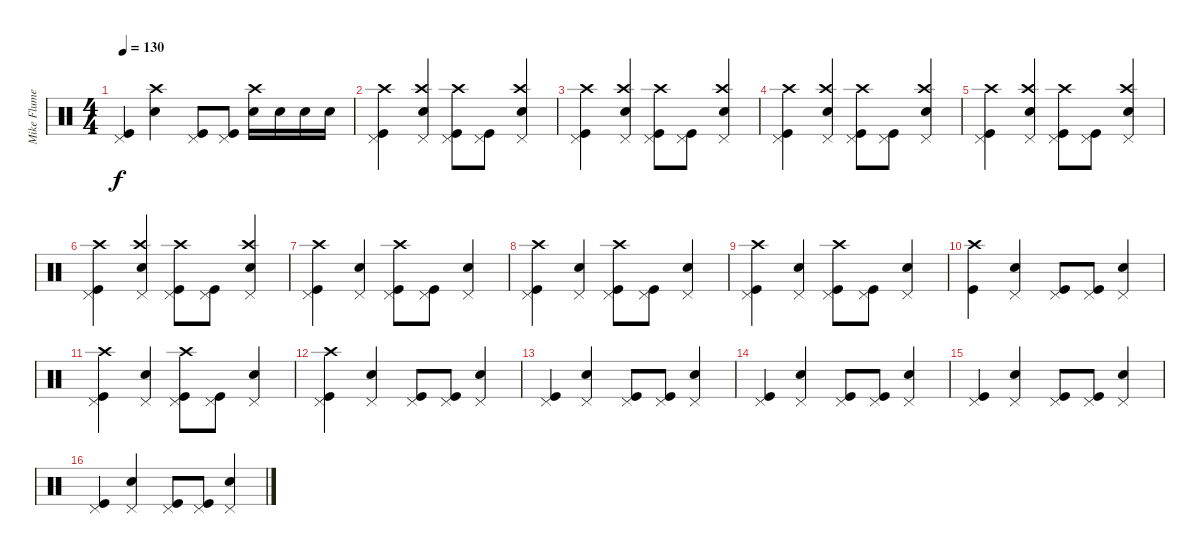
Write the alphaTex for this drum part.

\track ("Mike Flumee" "Mike Flume") {instrument percussion}
\staff {score}
\articulation defaults
\ts (4 4)
\tempo 130
\clef neutral
\ks c
("Pedal Hi-Hat (hit)" "Kick (hit)").4{dy f} ("Crash high (hit)" "Electric Snare (hit)").4 ("Pedal Hi-Hat (hit)" "Kick (hit)").8 ("Pedal Hi-Hat (hit)" "Kick (hit)").8 ("Crash high (hit)" "Electric Snare (hit)").16 "Electric Snare (hit)".16 "Electric Snare (hit)".16 "Electric Snare (hit)".16 |
("Crash high (hit)" "Pedal Hi-Hat (hit)" "Kick (hit)").4 ("Crash high (hit)" "Pedal Hi-Hat (hit)" "Electric Snare (hit)").4 ("Crash high (hit)" "Pedal Hi-Hat (hit)" "Kick (hit)").8 ("Pedal Hi-Hat (hit)" "Kick (hit)").8 ("Crash high (hit)" "Pedal Hi-Hat (hit)" "Electric Snare (hit)").4 |
("Crash high (hit)" "Pedal Hi-Hat (hit)" "Kick (hit)").4 ("Crash high (hit)" "Pedal Hi-Hat (hit)" "Electric Snare (hit)").4 ("Crash high (hit)" "Pedal Hi-Hat (hit)" "Kick (hit)").8 ("Pedal Hi-Hat (hit)" "Kick (hit)").8 ("Crash high (hit)" "Pedal Hi-Hat (hit)" "Electric Snare (hit)").4 |
("Crash high (hit)" "Pedal Hi-Hat (hit)" "Kick (hit)").4 ("Crash high (hit)" "Pedal Hi-Hat (hit)" "Electric Snare (hit)").4 ("Crash high (hit)" "Pedal Hi-Hat (hit)" "Kick (hit)").8 ("Pedal Hi-Hat (hit)" "Kick (hit)").8 ("Crash high (hit)" "Pedal Hi-Hat (hit)" "Electric Snare (hit)").4 |
("Crash high (hit)" "Pedal Hi-Hat (hit)" "Kick (hit)").4 ("Crash high (hit)" "Pedal Hi-Hat (hit)" "Electric Snare (hit)").4 ("Crash high (hit)" "Pedal Hi-Hat (hit)" "Kick (hit)").8 ("Pedal Hi-Hat (hit)" "Kick (hit)").8 ("Crash high (hit)" "Pedal Hi-Hat (hit)" "Electric Snare (hit)").4 |
("Crash high (hit)" "Pedal Hi-Hat (hit)" "Kick (hit)").4 ("Crash high (hit)" "Pedal Hi-Hat (hit)" "Electric Snare (hit)").4 ("Crash high (hit)" "Pedal Hi-Hat (hit)" "Kick (hit)").8 ("Pedal Hi-Hat (hit)" "Kick (hit)").8 ("Crash high (hit)" "Pedal Hi-Hat (hit)" "Electric Snare (hit)").4 |
("Crash high (hit)" "Pedal Hi-Hat (hit)" "Kick (hit)").4 ("Pedal Hi-Hat (hit)" "Electric Snare (hit)").4 ("Crash high (hit)" "Pedal Hi-Hat (hit)" "Kick (hit)").8 ("Pedal Hi-Hat (hit)" "Kick (hit)").8 ("Pedal Hi-Hat (hit)" "Electric Snare (hit)").4 |
("Crash high (hit)" "Pedal Hi-Hat (hit)" "Kick (hit)").4 ("Pedal Hi-Hat (hit)" "Electric Snare (hit)").4 ("Crash high (hit)" "Pedal Hi-Hat (hit)" "Kick (hit)").8 ("Pedal Hi-Hat (hit)" "Kick (hit)").8 ("Pedal Hi-Hat (hit)" "Electric Snare (hit)").4 |
("Crash high (hit)" "Pedal Hi-Hat (hit)" "Kick (hit)").4 ("Pedal Hi-Hat (hit)" "Electric Snare (hit)").4 ("Crash high (hit)" "Pedal Hi-Hat (hit)" "Kick (hit)").8 ("Pedal Hi-Hat (hit)" "Kick (hit)").8 ("Pedal Hi-Hat (hit)" "Electric Snare (hit)").4 |
("Crash high (hit)" "Kick (hit)").4 ("Pedal Hi-Hat (hit)" "Electric Snare (hit)").4 ("Pedal Hi-Hat (hit)" "Kick (hit)").8 ("Pedal Hi-Hat (hit)" "Kick (hit)").8 ("Pedal Hi-Hat (hit)" "Electric Snare (hit)").4 |
("Crash high (hit)" "Pedal Hi-Hat (hit)" "Kick (hit)").4 ("Pedal Hi-Hat (hit)" "Electric Snare (hit)").4 ("Crash high (hit)" "Pedal Hi-Hat (hit)" "Kick (hit)").8 ("Pedal Hi-Hat (hit)" "Kick (hit)").8 ("Pedal Hi-Hat (hit)" "Electric Snare (hit)").4 |
("Crash high (hit)" "Pedal Hi-Hat (hit)" "Kick (hit)").4 ("Pedal Hi-Hat (hit)" "Electric Snare (hit)").4 ("Pedal Hi-Hat (hit)" "Kick (hit)").8 ("Pedal Hi-Hat (hit)" "Kick (hit)").8 ("Pedal Hi-Hat (hit)" "Electric Snare (hit)").4 |
("Pedal Hi-Hat (hit)" "Kick (hit)").4 ("Pedal Hi-Hat (hit)" "Electric Snare (hit)").4 ("Pedal Hi-Hat (hit)" "Kick (hit)").8 ("Pedal Hi-Hat (hit)" "Kick (hit)").8 ("Pedal Hi-Hat (hit)" "Electric Snare (hit)").4 |
("Pedal Hi-Hat (hit)" "Kick (hit)").4 ("Pedal Hi-Hat (hit)" "Electric Snare (hit)").4 ("Pedal Hi-Hat (hit)" "Kick (hit)").8 ("Pedal Hi-Hat (hit)" "Kick (hit)").8 ("Pedal Hi-Hat (hit)" "Electric Snare (hit)").4 |
("Pedal Hi-Hat (hit)" "Kick (hit)").4 ("Pedal Hi-Hat (hit)" "Electric Snare (hit)").4 ("Pedal Hi-Hat (hit)" "Kick (hit)").8 ("Pedal Hi-Hat (hit)" "Kick (hit)").8 ("Pedal Hi-Hat (hit)" "Electric Snare (hit)").4 |
("Pedal Hi-Hat (hit)" "Kick (hit)").4 ("Pedal Hi-Hat (hit)" "Electric Snare (hit)").4 ("Pedal Hi-Hat (hit)" "Kick (hit)").8 ("Pedal Hi-Hat (hit)" "Kick (hit)").8 ("Pedal Hi-Hat (hit)" "Electric Snare (hit)").4
